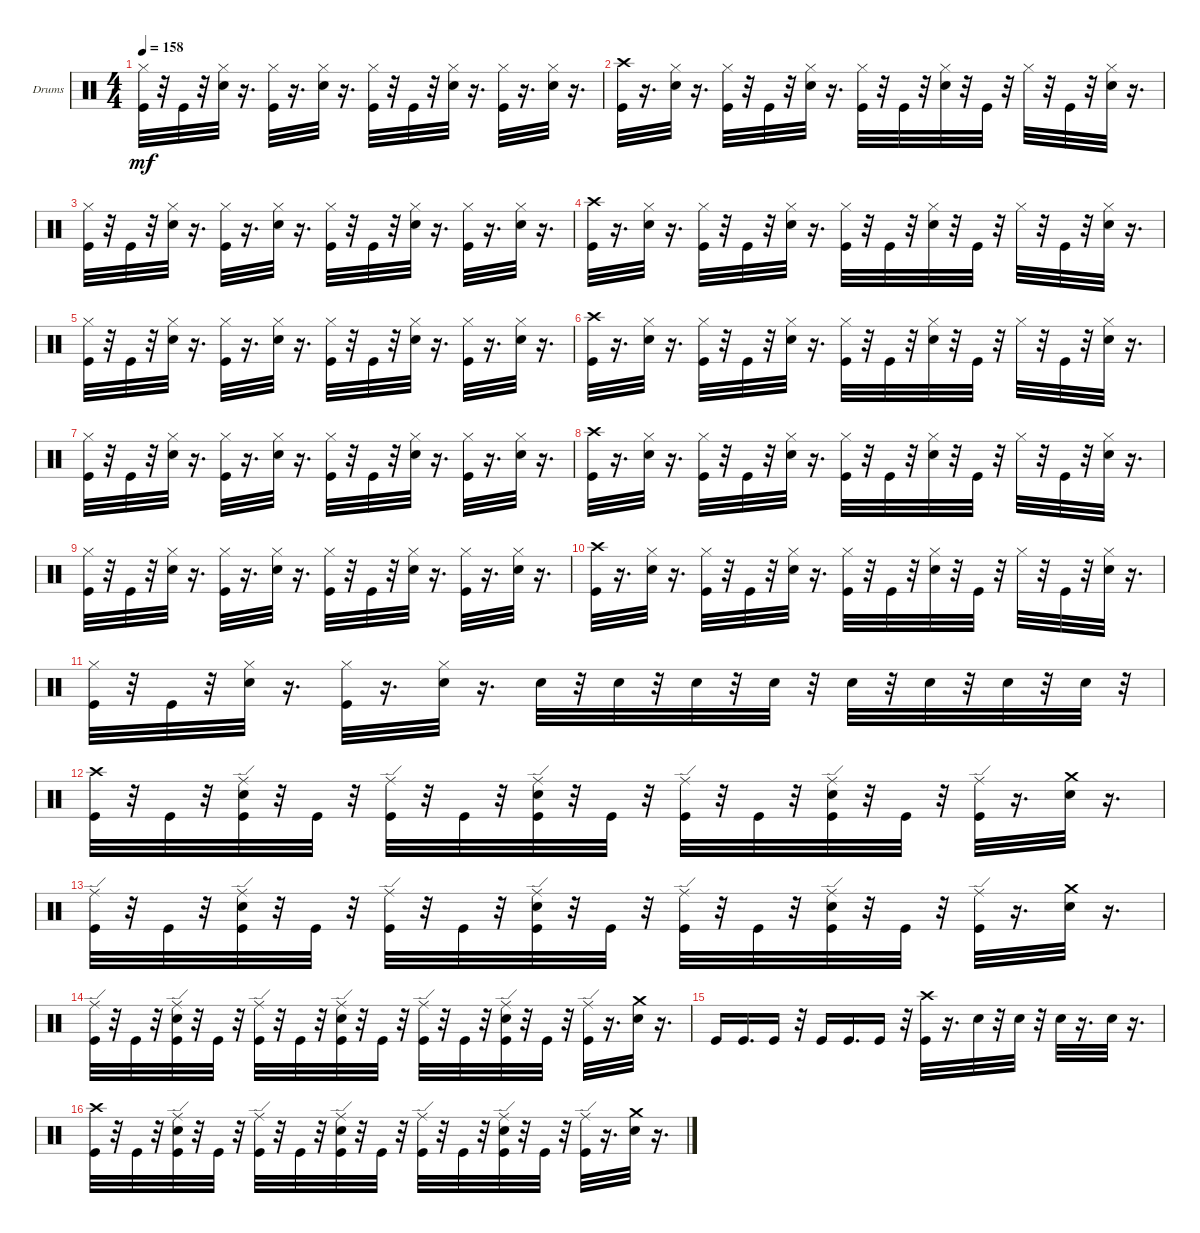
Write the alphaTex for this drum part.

\bracketExtendMode groupsimilarinstruments
\firstSystemTrackNameOrientation horizontal
\otherSystemsTrackNameOrientation horizontal
\track ("" "Drums") {instrument percussion}
\staff {score}
\articulation defaults
\ts (4 4)
\tempo 158
\clef neutral
\ks c
("Hi-Hat (closed)" "Kick (hit)").32{dy mf} r.32 "Kick (hit)".32 r.32 ("Snare (hit) 2" "Hi-Hat (closed)").32 r.16{d} ("Kick (hit)" "Hi-Hat (closed)").32 r.16{d} ("Snare (hit) 2" "Hi-Hat (closed)").32 r.16{d} ("Kick (hit)" "Hi-Hat (closed)").32 r.32 "Kick (hit)".32 r.32 ("Snare (hit) 2" "Hi-Hat (closed)").32 r.16{d} ("Kick (hit)" "Hi-Hat (closed)").32 r.16{d} ("Snare (hit) 2" "Hi-Hat (closed)").32 r.16{d} |
("Kick (hit)" "Crash high (hit)").32 r.16{d} ("Snare (hit) 2" "Hi-Hat (closed)").32 r.16{d} ("Kick (hit)" "Hi-Hat (closed)").32 r.32 "Kick (hit)".32 r.32 ("Snare (hit) 2" "Hi-Hat (closed)").32 r.16{d} ("Kick (hit)" "Hi-Hat (closed)").32 r.32 "Kick (hit)".32 r.32 ("Snare (hit) 2" "Hi-Hat (closed)").32 r.32 "Kick (hit)".32 r.32 "Hi-Hat (closed)".32 r.32 "Kick (hit)".32 r.32 ("Snare (hit) 2" "Hi-Hat (closed)").32 r.16{d} |
("Hi-Hat (closed)" "Kick (hit)").32 r.32 "Kick (hit)".32 r.32 ("Snare (hit) 2" "Hi-Hat (closed)").32 r.16{d} ("Kick (hit)" "Hi-Hat (closed)").32 r.16{d} ("Snare (hit) 2" "Hi-Hat (closed)").32 r.16{d} ("Kick (hit)" "Hi-Hat (closed)").32 r.32 "Kick (hit)".32 r.32 ("Snare (hit) 2" "Hi-Hat (closed)").32 r.16{d} ("Kick (hit)" "Hi-Hat (closed)").32 r.16{d} ("Snare (hit) 2" "Hi-Hat (closed)").32 r.16{d} |
("Kick (hit)" "Crash high (hit)").32 r.16{d} ("Snare (hit) 2" "Hi-Hat (closed)").32 r.16{d} ("Kick (hit)" "Hi-Hat (closed)").32 r.32 "Kick (hit)".32 r.32 ("Snare (hit) 2" "Hi-Hat (closed)").32 r.16{d} ("Kick (hit)" "Hi-Hat (closed)").32 r.32 "Kick (hit)".32 r.32 ("Snare (hit) 2" "Hi-Hat (closed)").32 r.32 "Kick (hit)".32 r.32 "Hi-Hat (closed)".32 r.32 "Kick (hit)".32 r.32 ("Snare (hit) 2" "Hi-Hat (closed)").32 r.16{d} |
("Hi-Hat (closed)" "Kick (hit)").32 r.32 "Kick (hit)".32 r.32 ("Snare (hit) 2" "Hi-Hat (closed)").32 r.16{d} ("Kick (hit)" "Hi-Hat (closed)").32 r.16{d} ("Snare (hit) 2" "Hi-Hat (closed)").32 r.16{d} ("Kick (hit)" "Hi-Hat (closed)").32 r.32 "Kick (hit)".32 r.32 ("Snare (hit) 2" "Hi-Hat (closed)").32 r.16{d} ("Kick (hit)" "Hi-Hat (closed)").32 r.16{d} ("Snare (hit) 2" "Hi-Hat (closed)").32 r.16{d} |
("Kick (hit)" "Crash high (hit)").32 r.16{d} ("Snare (hit) 2" "Hi-Hat (closed)").32 r.16{d} ("Kick (hit)" "Hi-Hat (closed)").32 r.32 "Kick (hit)".32 r.32 ("Snare (hit) 2" "Hi-Hat (closed)").32 r.16{d} ("Kick (hit)" "Hi-Hat (closed)").32 r.32 "Kick (hit)".32 r.32 ("Snare (hit) 2" "Hi-Hat (closed)").32 r.32 "Kick (hit)".32 r.32 "Hi-Hat (closed)".32 r.32 "Kick (hit)".32 r.32 ("Snare (hit) 2" "Hi-Hat (closed)").32 r.16{d} |
("Hi-Hat (closed)" "Kick (hit)").32 r.32 "Kick (hit)".32 r.32 ("Snare (hit) 2" "Hi-Hat (closed)").32 r.16{d} ("Kick (hit)" "Hi-Hat (closed)").32 r.16{d} ("Snare (hit) 2" "Hi-Hat (closed)").32 r.16{d} ("Kick (hit)" "Hi-Hat (closed)").32 r.32 "Kick (hit)".32 r.32 ("Snare (hit) 2" "Hi-Hat (closed)").32 r.16{d} ("Kick (hit)" "Hi-Hat (closed)").32 r.16{d} ("Snare (hit) 2" "Hi-Hat (closed)").32 r.16{d} |
("Kick (hit)" "Crash high (hit)").32 r.16{d} ("Snare (hit) 2" "Hi-Hat (closed)").32 r.16{d} ("Kick (hit)" "Hi-Hat (closed)").32 r.32 "Kick (hit)".32 r.32 ("Snare (hit) 2" "Hi-Hat (closed)").32 r.16{d} ("Kick (hit)" "Hi-Hat (closed)").32 r.32 "Kick (hit)".32 r.32 ("Snare (hit) 2" "Hi-Hat (closed)").32 r.32 "Kick (hit)".32 r.32 "Hi-Hat (closed)".32 r.32 "Kick (hit)".32 r.32 ("Snare (hit) 2" "Hi-Hat (closed)").32 r.16{d} |
("Hi-Hat (closed)" "Kick (hit)").32 r.32 "Kick (hit)".32 r.32 ("Snare (hit) 2" "Hi-Hat (closed)").32 r.16{d} ("Kick (hit)" "Hi-Hat (closed)").32 r.16{d} ("Snare (hit) 2" "Hi-Hat (closed)").32 r.16{d} ("Kick (hit)" "Hi-Hat (closed)").32 r.32 "Kick (hit)".32 r.32 ("Snare (hit) 2" "Hi-Hat (closed)").32 r.16{d} ("Kick (hit)" "Hi-Hat (closed)").32 r.16{d} ("Snare (hit) 2" "Hi-Hat (closed)").32 r.16{d} |
("Kick (hit)" "Crash high (hit)").32 r.16{d} ("Snare (hit) 2" "Hi-Hat (closed)").32 r.16{d} ("Kick (hit)" "Hi-Hat (closed)").32 r.32 "Kick (hit)".32 r.32 ("Snare (hit) 2" "Hi-Hat (closed)").32 r.16{d} ("Kick (hit)" "Hi-Hat (closed)").32 r.32 "Kick (hit)".32 r.32 ("Snare (hit) 2" "Hi-Hat (closed)").32 r.32 "Kick (hit)".32 r.32 "Hi-Hat (closed)".32 r.32 "Kick (hit)".32 r.32 ("Snare (hit) 2" "Hi-Hat (closed)").32 r.16{d} |
("Hi-Hat (closed)" "Kick (hit)").32 r.32 "Kick (hit)".32 r.32 ("Snare (hit) 2" "Hi-Hat (closed)").32 r.16{d} ("Kick (hit)" "Hi-Hat (closed)").32 r.16{d} ("Snare (hit) 2" "Hi-Hat (closed)").32 r.16{d} "Snare (hit) 2".32 r.32 "Snare (hit) 2".32 r.32 "Snare (hit) 2".32 r.32 "Snare (hit) 2".32 r.32 "Snare (hit) 2".32 r.32 "Snare (hit) 2".32 r.32 "Snare (hit) 2".32 r.32 "Snare (hit) 2".32 r.32 |
("Crash high (hit)" "Kick (hit)").32 r.32 "Kick (hit)".32 r.32 ("Ride (edge)" "Snare (hit) 2" "Kick (hit)").32 r.32 "Kick (hit)".32 r.32 ("Ride (edge)" "Kick (hit)").32 r.32 "Kick (hit)".32 r.32 ("Ride (edge)" "Snare (hit) 2" "Kick (hit)").32 r.32 "Kick (hit)".32 r.32 ("Ride (edge)" "Kick (hit)").32 r.32 "Kick (hit)".32 r.32 ("Ride (edge)" "Snare (hit) 2" "Kick (hit)").32 r.32 "Kick (hit)".32 r.32 ("Ride (edge)" "Kick (hit)").32 r.16{d} ("Crash medium (hit)" "Snare (hit) 2").32 r.16{d} |
("Ride (edge)" "Kick (hit)").32 r.32 "Kick (hit)".32 r.32 ("Ride (edge)" "Snare (hit) 2" "Kick (hit)").32 r.32 "Kick (hit)".32 r.32 ("Ride (edge)" "Kick (hit)").32 r.32 "Kick (hit)".32 r.32 ("Ride (edge)" "Snare (hit) 2" "Kick (hit)").32 r.32 "Kick (hit)".32 r.32 ("Ride (edge)" "Kick (hit)").32 r.32 "Kick (hit)".32 r.32 ("Ride (edge)" "Snare (hit) 2" "Kick (hit)").32 r.32 "Kick (hit)".32 r.32 ("Ride (edge)" "Kick (hit)").32 r.16{d} ("Crash medium (hit)" "Snare (hit) 2").32 r.16{d} |
("Ride (edge)" "Kick (hit)").32 r.32 "Kick (hit)".32 r.32 ("Ride (edge)" "Snare (hit) 2" "Kick (hit)").32 r.32 "Kick (hit)".32 r.32 ("Ride (edge)" "Kick (hit)").32 r.32 "Kick (hit)".32 r.32 ("Ride (edge)" "Snare (hit) 2" "Kick (hit)").32 r.32 "Kick (hit)".32 r.32 ("Ride (edge)" "Kick (hit)").32 r.32 "Kick (hit)".32 r.32 ("Ride (edge)" "Snare (hit) 2" "Kick (hit)").32 r.32 "Kick (hit)".32 r.32 ("Ride (edge)" "Kick (hit)").32 r.16{d} ("Crash medium (hit)" "Snare (hit) 2").32 r.16{d} |
"Kick (hit)".16 "Kick (hit)".16{d} "Kick (hit)".16 r.32 "Kick (hit)".16 "Kick (hit)".16{d} "Kick (hit)".16 r.32 ("Crash high (hit)" "Kick (hit)").32 r.16{d} "Snare (hit) 2".32 r.32 "Snare (hit) 2".32 r.32 "Snare (hit) 2".32 r.16{d} "Snare (hit) 2".32 r.16{d} |
("Crash high (hit)" "Kick (hit)").32 r.32 "Kick (hit)".32 r.32 ("Ride (edge)" "Snare (hit) 2" "Kick (hit)").32 r.32 "Kick (hit)".32 r.32 ("Ride (edge)" "Kick (hit)").32 r.32 "Kick (hit)".32 r.32 ("Ride (edge)" "Snare (hit) 2" "Kick (hit)").32 r.32 "Kick (hit)".32 r.32 ("Ride (edge)" "Kick (hit)").32 r.32 "Kick (hit)".32 r.32 ("Ride (edge)" "Snare (hit) 2" "Kick (hit)").32 r.32 "Kick (hit)".32 r.32 ("Ride (edge)" "Kick (hit)").32 r.16{d} ("Crash medium (hit)" "Snare (hit) 2").32 r.16{d}
